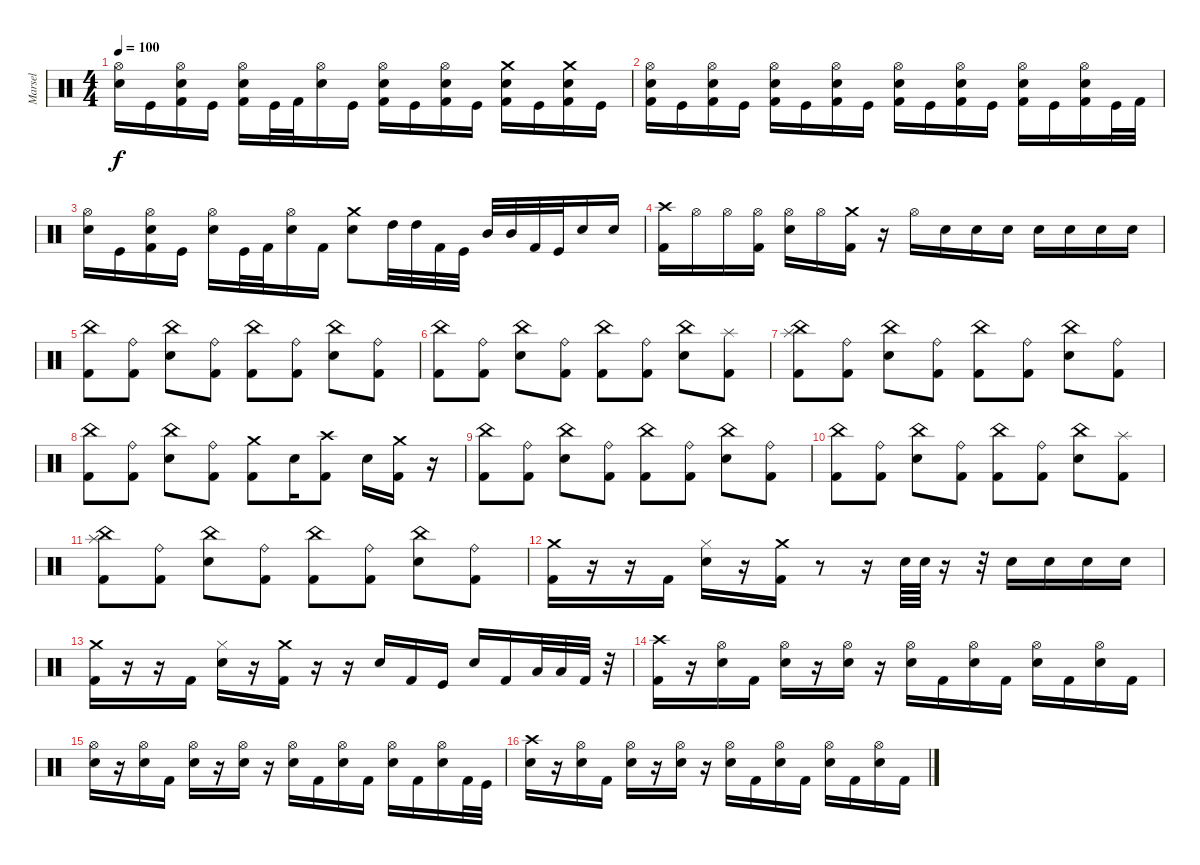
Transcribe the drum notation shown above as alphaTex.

\track ("Marsel" "Marsel") {instrument percussion}
\staff {score}
\articulation defaults
\ts (4 4)
\tempo 100
\clef neutral
\ks c
("Hi-Hat (open)" "Snare (hit) 2").16{dy f} "Kick (hit)".16 ("Hi-Hat (open)" "Snare (hit) 2" "Kick (hit) 2").16 "Kick (hit)".16 ("Hi-Hat (open)" "Snare (hit) 2" "Kick (hit) 2").16 "Kick (hit)".32 "Kick (hit) 2".32 ("Hi-Hat (open)" "Snare (hit) 2").16 "Kick (hit)".16 ("Hi-Hat (open)" "Snare (hit) 2" "Kick (hit) 2").16 "Kick (hit)".16 ("Hi-Hat (open)" "Snare (hit) 2" "Kick (hit) 2").16 "Kick (hit)".16 ("Crash medium (hit)" "Snare (hit) 2" "Kick (hit) 2").16 "Kick (hit)".16 ("Crash medium (hit)" "Snare (hit) 2" "Kick (hit) 2").16 "Kick (hit)".16 |
("Hi-Hat (open)" "Snare (hit) 2" "Kick (hit) 2").16 "Kick (hit)".16 ("Hi-Hat (open)" "Snare (hit) 2" "Kick (hit) 2").16 "Kick (hit)".16 ("Hi-Hat (open)" "Snare (hit) 2" "Kick (hit) 2").16 "Kick (hit)".16 ("Hi-Hat (open)" "Snare (hit) 2" "Kick (hit) 2").16 "Kick (hit)".16 ("Hi-Hat (open)" "Snare (hit) 2" "Kick (hit) 2").16 "Kick (hit)".16 ("Hi-Hat (open)" "Snare (hit) 2" "Kick (hit) 2").16 "Kick (hit)".16 ("Hi-Hat (open)" "Snare (hit) 2" "Kick (hit) 2").16 "Kick (hit)".16 ("Hi-Hat (open)" "Snare (hit) 2" "Kick (hit) 2").16 "Kick (hit)".32 "Kick (hit) 2".32 |
("Hi-Hat (open)" "Snare (hit) 2").16 "Kick (hit)".16 ("Hi-Hat (open)" "Snare (hit) 2" "Kick (hit) 2").16 "Kick (hit)".16 ("Hi-Hat (open)" "Snare (hit) 2").16 "Kick (hit)".32 "Kick (hit) 2".32 ("Hi-Hat (open)" "Snare (hit) 2").16 "Kick (hit) 2".16 ("Crash medium (hit)" "Snare (hit) 2").8 "High Tom (hit)".32 "High Tom (hit)".32 "Kick (hit) 2".32 "Kick (hit)".32 "Mid Tom (hit)".32 "Mid Tom (hit)".32 "Kick (hit) 2".32 "Kick (hit)".32 "Snare (hit) 2".16 "Snare (hit) 2".16 |
("Crash high (hit)" "Kick (hit) 2").16 "Hi-Hat (open)".16 "Hi-Hat (open)".16 ("Hi-Hat (open)" "Kick (hit) 2").16 ("Hi-Hat (open)" "Snare (hit) 2").16 "Hi-Hat (open)".16 ("Crash medium (hit)" "Kick (hit) 2").16 r.16 "Hi-Hat (open)".16 "Snare (hit) 2".16 "Snare (hit) 2".16 "Snare (hit) 2".16 "Snare (hit) 2".16 "Snare (hit) 2".16 "Snare (hit) 2".16 "Snare (hit) 2".16 |
("China (hit)" "Kick (hit) 2").8 ("Ride (bell)" "Kick (hit) 2").8 ("China (hit)" "Snare (hit) 2").8 ("Ride (bell)" "Kick (hit) 2").8 ("China (hit)" "Kick (hit) 2").8 ("Ride (bell)" "Kick (hit) 2").8 ("China (hit)" "Snare (hit) 2").8 ("Ride (bell)" "Kick (hit) 2").8 |
("China (hit)" "Kick (hit) 2").8 ("Ride (bell)" "Kick (hit) 2").8 ("China (hit)" "Snare (hit) 2").8 ("Ride (bell)" "Kick (hit) 2").8 ("China (hit)" "Kick (hit) 2").8 ("Ride (bell)" "Kick (hit) 2").8 ("China (hit)" "Snare (hit) 2").8 ("Splash (hit)" "Kick (hit) 2").8 |
("Splash (hit)" "China (hit)" "Kick (hit) 2").8 ("Ride (bell)" "Kick (hit) 2").8 ("China (hit)" "Snare (hit) 2").8 ("Ride (bell)" "Kick (hit) 2").8 ("China (hit)" "Kick (hit) 2").8 ("Ride (bell)" "Kick (hit) 2").8 ("China (hit)" "Snare (hit) 2").8 ("Ride (bell)" "Kick (hit) 2").8 |
("China (hit)" "Kick (hit) 2").8 ("Ride (bell)" "Kick (hit) 2").8 ("China (hit)" "Snare (hit) 2").8 ("Ride (bell)" "Kick (hit) 2").8 ("Crash medium (hit)" "Kick (hit) 2").8 "Snare (hit) 2".16 ("Crash high (hit)" "Kick (hit) 2").8 "Snare (hit) 2".16 ("Crash medium (hit)" "Kick (hit) 2").16 r.16 |
("China (hit)" "Kick (hit) 2").8 ("Ride (bell)" "Kick (hit) 2").8 ("China (hit)" "Snare (hit) 2").8 ("Ride (bell)" "Kick (hit) 2").8 ("China (hit)" "Kick (hit) 2").8 ("Ride (bell)" "Kick (hit) 2").8 ("China (hit)" "Snare (hit) 2").8 ("Ride (bell)" "Kick (hit) 2").8 |
("China (hit)" "Kick (hit) 2").8 ("Ride (bell)" "Kick (hit) 2").8 ("China (hit)" "Snare (hit) 2").8 ("Ride (bell)" "Kick (hit) 2").8 ("China (hit)" "Kick (hit) 2").8 ("Ride (bell)" "Kick (hit) 2").8 ("China (hit)" "Snare (hit) 2").8 ("Splash (hit)" "Kick (hit) 2").8 |
("China (hit)" "Splash (hit)" "Kick (hit) 2").8 ("Ride (bell)" "Kick (hit) 2").8 ("China (hit)" "Snare (hit) 2").8 ("Ride (bell)" "Kick (hit) 2").8 ("China (hit)" "Kick (hit) 2").8 ("Ride (bell)" "Kick (hit) 2").8 ("China (hit)" "Snare (hit) 2").8 ("Ride (bell)" "Kick (hit) 2").8 |
("Crash medium (hit)" "Kick (hit) 2").16 r.16 r.16 "Kick (hit) 2".16 ("Hi-Hat (closed)" "Snare (hit) 2").16 r.16 ("Crash medium (hit)" "Kick (hit) 2").16 r.8 r.16 "Snare (hit) 2".64 "Snare (hit) 2".64 r.16 r.32 "Snare (hit) 2".16 "Snare (hit) 2".16 "Snare (hit) 2".16 "Snare (hit) 2".16 |
("Crash medium (hit)" "Kick (hit) 2").16 r.16 r.16 "Kick (hit) 2".16 ("Hi-Hat (closed)" "Snare (hit) 2").16 r.16 ("Crash medium (hit)" "Kick (hit) 2").16 r.16 r.16 "Snare (hit) 2".16 "Kick (hit) 2".16 "Kick (hit)".16 "Snare (hit) 2".16 "Kick (hit) 2".16 "Low Floor Tom (hit)".32 "Low Tom (hit)".32 "Kick (hit) 2".32 r.32 |
("Crash high (hit)" "Kick (hit) 2").16 r.16 ("Hi-Hat (open)" "Snare (hit) 2").16 "Kick (hit) 2".16 ("Hi-Hat (open)" "Snare (hit) 2").16 r.16 ("Hi-Hat (open)" "Snare (hit) 2").16 r.16 ("Hi-Hat (open)" "Snare (hit) 2").16 "Kick (hit) 2".16 ("Hi-Hat (open)" "Snare (hit) 2").16 "Kick (hit) 2".16 ("Hi-Hat (open)" "Snare (hit) 2").16 "Kick (hit) 2".16 ("Hi-Hat (open)" "Snare (hit) 2").16 "Kick (hit) 2".16 |
("Hi-Hat (open)" "Snare (hit) 2").16 r.16 ("Hi-Hat (open)" "Snare (hit) 2").16 "Kick (hit) 2".16 ("Hi-Hat (open)" "Snare (hit) 2").16 r.16 ("Hi-Hat (open)" "Snare (hit) 2").16 r.16 ("Hi-Hat (open)" "Snare (hit) 2").16 "Kick (hit) 2".16 ("Hi-Hat (open)" "Snare (hit) 2").16 "Kick (hit) 2".16 ("Hi-Hat (open)" "Snare (hit) 2").16 "Kick (hit) 2".16 ("Hi-Hat (open)" "Snare (hit) 2").16 "Kick (hit) 2".32 "Kick (hit)".32 |
("Crash high (hit)" "Snare (hit) 2").16 r.16 ("Hi-Hat (open)" "Snare (hit) 2").16 "Kick (hit) 2".16 ("Hi-Hat (open)" "Snare (hit) 2").16 r.16 ("Hi-Hat (open)" "Snare (hit) 2").16 r.16 ("Hi-Hat (open)" "Snare (hit) 2").16 "Kick (hit) 2".16 ("Hi-Hat (open)" "Snare (hit) 2").16 "Kick (hit) 2".16 ("Hi-Hat (open)" "Snare (hit) 2").16 "Kick (hit) 2".16 ("Hi-Hat (open)" "Snare (hit) 2").16 "Kick (hit) 2".16
